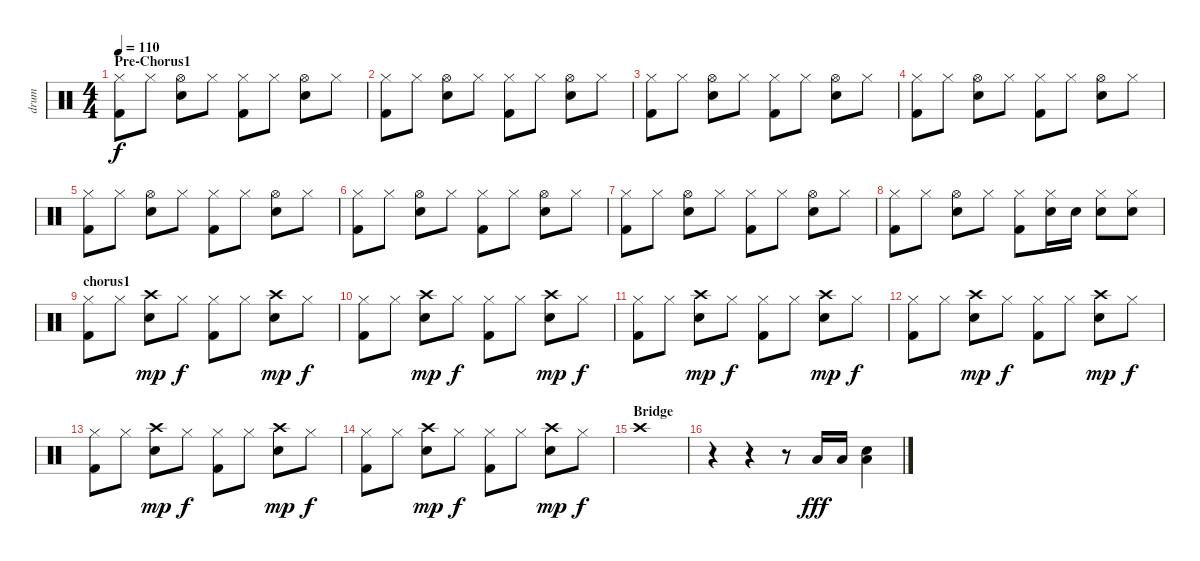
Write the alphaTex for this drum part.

\track ("drum" "drum") {instrument percussion}
\staff {score}
\articulation defaults
\ts (4 4)
\section ("" "Pre-Chorus1")
\tempo 110
\clef neutral
\ks c
("Hi-Hat (closed)" "Kick (hit) 2").8{dy f} "Hi-Hat (closed)".8 ("Hi-Hat (open)" "Electric Snare (hit)").8 "Hi-Hat (closed)".8 ("Hi-Hat (closed)" "Kick (hit) 2").8 "Hi-Hat (closed)".8 ("Hi-Hat (open)" "Electric Snare (hit)").8 "Hi-Hat (closed)".8 |
("Hi-Hat (closed)" "Kick (hit) 2").8 "Hi-Hat (closed)".8 ("Hi-Hat (open)" "Electric Snare (hit)").8 "Hi-Hat (closed)".8 ("Hi-Hat (closed)" "Kick (hit) 2").8 "Hi-Hat (closed)".8 ("Hi-Hat (open)" "Electric Snare (hit)").8 "Hi-Hat (closed)".8 |
("Hi-Hat (closed)" "Kick (hit) 2").8 "Hi-Hat (closed)".8 ("Hi-Hat (open)" "Electric Snare (hit)").8 "Hi-Hat (closed)".8 ("Hi-Hat (closed)" "Kick (hit) 2").8 "Hi-Hat (closed)".8 ("Hi-Hat (open)" "Electric Snare (hit)").8 "Hi-Hat (closed)".8 |
("Hi-Hat (closed)" "Kick (hit) 2").8 "Hi-Hat (closed)".8 ("Hi-Hat (open)" "Electric Snare (hit)").8 "Hi-Hat (closed)".8 ("Hi-Hat (closed)" "Kick (hit) 2").8 "Hi-Hat (closed)".8 ("Hi-Hat (open)" "Electric Snare (hit)").8 "Hi-Hat (closed)".8 |
("Hi-Hat (closed)" "Kick (hit) 2").8 "Hi-Hat (closed)".8 ("Hi-Hat (open)" "Electric Snare (hit)").8 "Hi-Hat (closed)".8 ("Hi-Hat (closed)" "Kick (hit) 2").8 "Hi-Hat (closed)".8 ("Hi-Hat (open)" "Electric Snare (hit)").8 "Hi-Hat (closed)".8 |
("Hi-Hat (closed)" "Kick (hit) 2").8 "Hi-Hat (closed)".8 ("Hi-Hat (open)" "Electric Snare (hit)").8 "Hi-Hat (closed)".8 ("Hi-Hat (closed)" "Kick (hit) 2").8 "Hi-Hat (closed)".8 ("Hi-Hat (open)" "Electric Snare (hit)").8 "Hi-Hat (closed)".8 |
("Hi-Hat (closed)" "Kick (hit) 2").8 "Hi-Hat (closed)".8 ("Hi-Hat (open)" "Electric Snare (hit)").8 "Hi-Hat (closed)".8 ("Hi-Hat (closed)" "Kick (hit) 2").8 "Hi-Hat (closed)".8 ("Hi-Hat (open)" "Electric Snare (hit)").8 "Hi-Hat (closed)".8 |
("Hi-Hat (closed)" "Kick (hit) 2").8 "Hi-Hat (closed)".8 ("Hi-Hat (open)" "Electric Snare (hit)").8 "Hi-Hat (closed)".8 ("Hi-Hat (closed)" "Kick (hit) 2").8 ("Hi-Hat (closed)" "Electric Snare (hit)").16 "Electric Snare (hit)".16 ("Hi-Hat (closed)" "Electric Snare (hit)").8 ("Hi-Hat (closed)" "Electric Snare (hit)").8 |
\section ("" "chorus1")
("Hi-Hat (closed)" "Kick (hit) 2").8 "Hi-Hat (closed)".8 ("Crash high (hit)" "Electric Snare (hit)").8{dy mp} "Hi-Hat (closed)".8{dy f} ("Hi-Hat (closed)" "Kick (hit) 2").8 "Hi-Hat (closed)".8 ("Crash high (hit)" "Electric Snare (hit)").8{dy mp} "Hi-Hat (closed)".8{dy f} |
("Hi-Hat (closed)" "Kick (hit) 2").8 "Hi-Hat (closed)".8 ("Crash high (hit)" "Electric Snare (hit)").8{dy mp} "Hi-Hat (closed)".8{dy f} ("Hi-Hat (closed)" "Kick (hit) 2").8 "Hi-Hat (closed)".8 ("Crash high (hit)" "Electric Snare (hit)").8{dy mp} "Hi-Hat (closed)".8{dy f} |
("Hi-Hat (closed)" "Kick (hit) 2").8 "Hi-Hat (closed)".8 ("Crash high (hit)" "Electric Snare (hit)").8{dy mp} "Hi-Hat (closed)".8{dy f} ("Hi-Hat (closed)" "Kick (hit) 2").8 "Hi-Hat (closed)".8 ("Crash high (hit)" "Electric Snare (hit)").8{dy mp} "Hi-Hat (closed)".8{dy f} |
("Hi-Hat (closed)" "Kick (hit) 2").8 "Hi-Hat (closed)".8 ("Crash high (hit)" "Electric Snare (hit)").8{dy mp} "Hi-Hat (closed)".8{dy f} ("Hi-Hat (closed)" "Kick (hit) 2").8 "Hi-Hat (closed)".8 ("Crash high (hit)" "Electric Snare (hit)").8{dy mp} "Hi-Hat (closed)".8{dy f} |
("Hi-Hat (closed)" "Kick (hit) 2").8 "Hi-Hat (closed)".8 ("Crash high (hit)" "Electric Snare (hit)").8{dy mp} "Hi-Hat (closed)".8{dy f} ("Hi-Hat (closed)" "Kick (hit) 2").8 "Hi-Hat (closed)".8 ("Crash high (hit)" "Electric Snare (hit)").8{dy mp} "Hi-Hat (closed)".8{dy f} |
("Hi-Hat (closed)" "Kick (hit) 2").8 "Hi-Hat (closed)".8 ("Crash high (hit)" "Electric Snare (hit)").8{dy mp} "Hi-Hat (closed)".8{dy f} ("Hi-Hat (closed)" "Kick (hit) 2").8 "Hi-Hat (closed)".8 ("Crash high (hit)" "Electric Snare (hit)").8{dy mp} "Hi-Hat (closed)".8{dy f} |
\section ("" "Bridge")
"Crash high (hit)".1 |
r.4 r.4 r.8 "Low Floor Tom (hit)".16{dy fff} "Low Floor Tom (hit)".16 ("Electric Snare (hit)" "Low Tom (hit)").4
